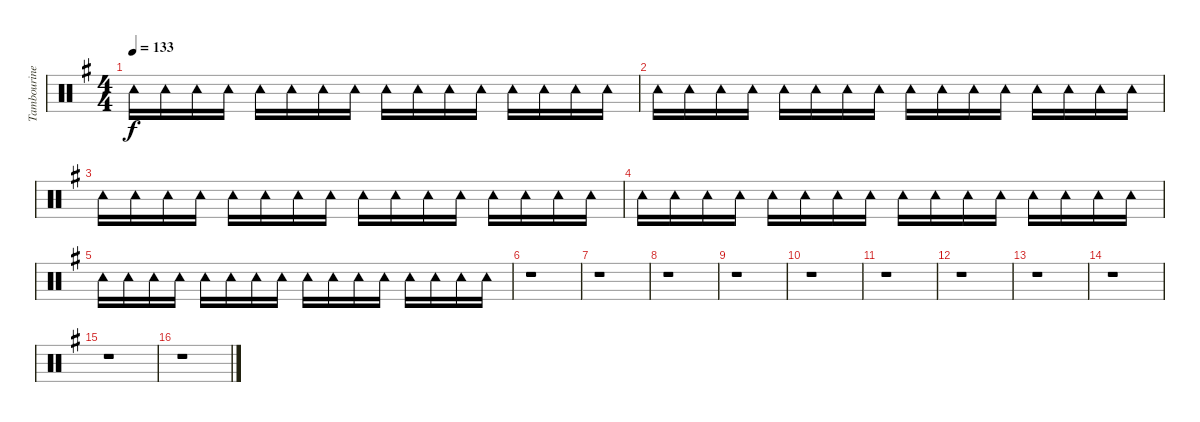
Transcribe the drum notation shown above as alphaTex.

\track ("Tambourine" "Tambourine") {instrument percussion}
\staff {score}
\articulation defaults
\ts (4 4)
\tempo 133
\clef neutral
\ks g "Tambourine (hit)".16{dy f} "Tambourine (hit)".16 "Tambourine (hit)".16 "Tambourine (hit)".16 "Tambourine (hit)".16 "Tambourine (hit)".16 "Tambourine (hit)".16 "Tambourine (hit)".16 "Tambourine (hit)".16 "Tambourine (hit)".16 "Tambourine (hit)".16 "Tambourine (hit)".16 "Tambourine (hit)".16 "Tambourine (hit)".16 "Tambourine (hit)".16 "Tambourine (hit)".16
|
"Tambourine (hit)".16 "Tambourine (hit)".16 "Tambourine (hit)".16 "Tambourine (hit)".16 "Tambourine (hit)".16 "Tambourine (hit)".16 "Tambourine (hit)".16 "Tambourine (hit)".16 "Tambourine (hit)".16 "Tambourine (hit)".16 "Tambourine (hit)".16 "Tambourine (hit)".16 "Tambourine (hit)".16 "Tambourine (hit)".16 "Tambourine (hit)".16 "Tambourine (hit)".16 |
"Tambourine (hit)".16 "Tambourine (hit)".16 "Tambourine (hit)".16 "Tambourine (hit)".16 "Tambourine (hit)".16 "Tambourine (hit)".16 "Tambourine (hit)".16 "Tambourine (hit)".16 "Tambourine (hit)".16 "Tambourine (hit)".16 "Tambourine (hit)".16 "Tambourine (hit)".16 "Tambourine (hit)".16 "Tambourine (hit)".16 "Tambourine (hit)".16 "Tambourine (hit)".16 |
"Tambourine (hit)".16 "Tambourine (hit)".16 "Tambourine (hit)".16 "Tambourine (hit)".16 "Tambourine (hit)".16 "Tambourine (hit)".16 "Tambourine (hit)".16 "Tambourine (hit)".16 "Tambourine (hit)".16 "Tambourine (hit)".16 "Tambourine (hit)".16 "Tambourine (hit)".16 "Tambourine (hit)".16 "Tambourine (hit)".16 "Tambourine (hit)".16 "Tambourine (hit)".16 |
"Tambourine (hit)".16 "Tambourine (hit)".16 "Tambourine (hit)".16 "Tambourine (hit)".16 "Tambourine (hit)".16 "Tambourine (hit)".16 "Tambourine (hit)".16 "Tambourine (hit)".16 "Tambourine (hit)".16 "Tambourine (hit)".16 "Tambourine (hit)".16 "Tambourine (hit)".16 "Tambourine (hit)".16 "Tambourine (hit)".16 "Tambourine (hit)".16 "Tambourine (hit)".16 |
r.1 |
r.1 |
r.1 |
r.1 |
r.1 |
r.1 |
r.1 |
r.1 |
r.1 |
r.1 |
r.1
